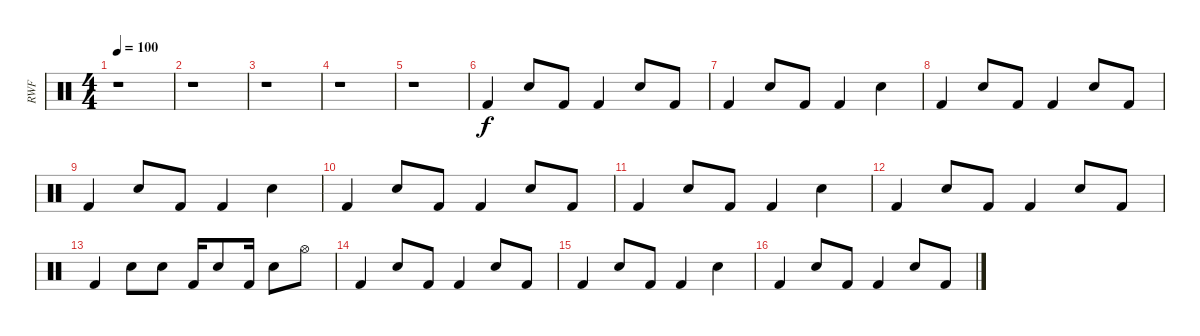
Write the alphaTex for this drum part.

\track ("RWF" "RWF") {instrument percussion}
\staff {score}
\articulation defaults
\ts (4 4)
\tempo 100
\clef neutral
\ks c
r.1{dy f} |
r.1 |
r.1 |
r.1 |
r.1 |
"Kick (hit) 2".4 "Electric Snare (hit)".8 "Kick (hit) 2".8 "Kick (hit) 2".4 "Electric Snare (hit)".8 "Kick (hit) 2".8 |
"Kick (hit) 2".4 "Electric Snare (hit)".8 "Kick (hit) 2".8 "Kick (hit) 2".4 "Electric Snare (hit)".4 |
"Kick (hit) 2".4 "Electric Snare (hit)".8 "Kick (hit) 2".8 "Kick (hit) 2".4 "Electric Snare (hit)".8 "Kick (hit) 2".8 |
"Kick (hit) 2".4 "Electric Snare (hit)".8 "Kick (hit) 2".8 "Kick (hit) 2".4 "Electric Snare (hit)".4 |
"Kick (hit) 2".4 "Electric Snare (hit)".8 "Kick (hit) 2".8 "Kick (hit) 2".4 "Electric Snare (hit)".8 "Kick (hit) 2".8 |
"Kick (hit) 2".4 "Electric Snare (hit)".8 "Kick (hit) 2".8 "Kick (hit) 2".4 "Electric Snare (hit)".4 |
"Kick (hit) 2".4 "Electric Snare (hit)".8 "Kick (hit) 2".8 "Kick (hit) 2".4 "Electric Snare (hit)".8 "Kick (hit) 2".8 |
"Kick (hit) 2".4 "Electric Snare (hit)".8 "Electric Snare (hit)".8 "Kick (hit) 2".16 "Electric Snare (hit)".8 "Kick (hit) 2".16 "Electric Snare (hit)".8 "Hi-Hat (open)".8 |
"Kick (hit) 2".4 "Electric Snare (hit)".8 "Kick (hit) 2".8 "Kick (hit) 2".4 "Electric Snare (hit)".8 "Kick (hit) 2".8 |
"Kick (hit) 2".4 "Electric Snare (hit)".8 "Kick (hit) 2".8 "Kick (hit) 2".4 "Electric Snare (hit)".4 |
"Kick (hit) 2".4 "Electric Snare (hit)".8 "Kick (hit) 2".8 "Kick (hit) 2".4 "Electric Snare (hit)".8 "Kick (hit) 2".8
